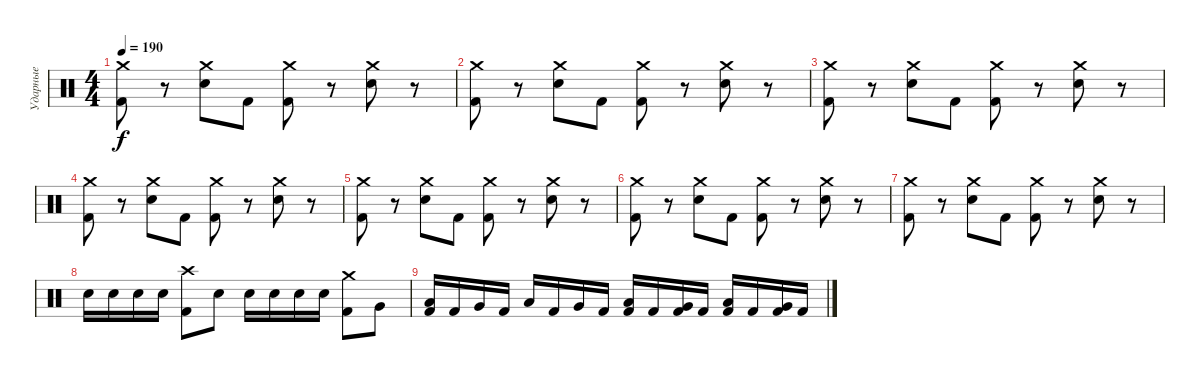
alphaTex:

\track ("Ударные" "Ударные") {instrument percussion}
\staff {score}
\articulation defaults
\ts (4 4)
\tempo 190
\clef neutral
\ks c
("Crash medium (hit)" "Kick (hit) 2").8{dy f} r.8 ("Crash medium (hit)" "Snare (hit) 2").8 "Kick (hit) 2".8 ("Crash medium (hit)" "Kick (hit) 2").8 r.8 ("Crash medium (hit)" "Snare (hit) 2").8 r.8 |
("Crash medium (hit)" "Kick (hit) 2").8 r.8 ("Crash medium (hit)" "Snare (hit) 2").8 "Kick (hit) 2".8 ("Crash medium (hit)" "Kick (hit) 2").8 r.8 ("Crash medium (hit)" "Snare (hit) 2").8 r.8 |
("Crash medium (hit)" "Kick (hit) 2").8 r.8 ("Crash medium (hit)" "Snare (hit) 2").8 "Kick (hit) 2".8 ("Crash medium (hit)" "Kick (hit) 2").8 r.8 ("Crash medium (hit)" "Snare (hit) 2").8 r.8 |
("Crash medium (hit)" "Kick (hit) 2").8 r.8 ("Crash medium (hit)" "Snare (hit) 2").8 "Kick (hit) 2".8 ("Crash medium (hit)" "Kick (hit) 2").8 r.8 ("Crash medium (hit)" "Snare (hit) 2").8 r.8 |
("Crash medium (hit)" "Kick (hit) 2").8 r.8 ("Crash medium (hit)" "Snare (hit) 2").8 "Kick (hit) 2".8 ("Crash medium (hit)" "Kick (hit) 2").8 r.8 ("Crash medium (hit)" "Snare (hit) 2").8 r.8 |
("Crash medium (hit)" "Kick (hit) 2").8 r.8 ("Crash medium (hit)" "Snare (hit) 2").8 "Kick (hit) 2".8 ("Crash medium (hit)" "Kick (hit) 2").8 r.8 ("Crash medium (hit)" "Snare (hit) 2").8 r.8 |
("Crash medium (hit)" "Kick (hit) 2").8 r.8 ("Crash medium (hit)" "Snare (hit) 2").8 "Kick (hit) 2".8 ("Crash medium (hit)" "Kick (hit) 2").8 r.8 ("Crash medium (hit)" "Snare (hit) 2").8 r.8 |
"Snare (hit) 2".16 "Snare (hit) 2".16 "Snare (hit) 2".16 "Snare (hit) 2".16 ("Crash high (hit)" "Kick (hit) 2").8 "Snare (hit) 2".8 "Snare (hit) 2".16 "Snare (hit) 2".16 "Snare (hit) 2".16 "Snare (hit) 2".16 ("Crash medium (hit)" "Kick (hit) 2").8 "Very Low Tom (hit)".8 |
("Low Tom (hit)" "Kick (hit) 2").16 "Kick (hit) 2".16 "Very Low Tom (hit)".16 "Kick (hit) 2".16 "Low Tom (hit)".16 "Kick (hit) 2".16 "Very Low Tom (hit)".16 "Kick (hit) 2".16 ("Low Tom (hit)" "Kick (hit) 2").16 "Kick (hit) 2".16 ("Very Low Tom (hit)" "Kick (hit) 2").16 "Kick (hit) 2".16 ("Low Tom (hit)" "Kick (hit) 2").16 "Kick (hit) 2".16 ("Very Low Tom (hit)" "Kick (hit) 2").16 "Kick (hit) 2".16
